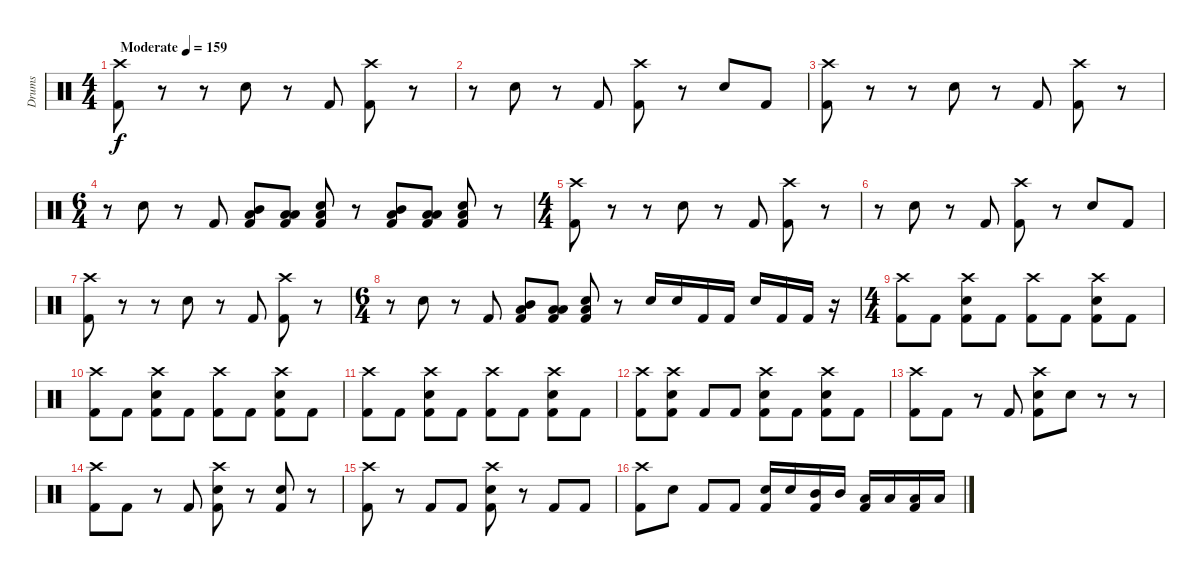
\track ("Drums" "Drums") {instrument percussion}
\staff {score}
\articulation defaults
\ts (4 4)
\tempo (159 "Moderate")
\clef neutral
\ks c
("Crash high (hit)" "Kick (hit) 2").8{dy f} r.8 r.8 "Electric Snare (hit)".8 r.8 "Kick (hit) 2".8 ("Crash high (hit)" "Kick (hit) 2").8 r.8 |
r.8 "Electric Snare (hit)".8 r.8 "Kick (hit) 2".8 ("Crash high (hit)" "Kick (hit) 2").8 r.8 "Electric Snare (hit)".8 "Kick (hit) 2".8 |
("Crash high (hit)" "Kick (hit) 2").8 r.8 r.8 "Electric Snare (hit)".8 r.8 "Kick (hit) 2".8 ("Crash high (hit)" "Kick (hit) 2").8 r.8 |
\ts (6 4)
r.8 "Electric Snare (hit)".8 r.8 "Kick (hit) 2".8 ("Mid Tom (hit)" "Low Floor Tom (hit)" "Kick (hit) 2").8 ("Low Tom (hit)" "Low Floor Tom (hit)" "Kick (hit) 2").8 ("Low Floor Tom (hit)" "Electric Snare (hit)" "Kick (hit) 2").8 r.8 ("Mid Tom (hit)" "Low Floor Tom (hit)" "Kick (hit) 2").8 ("Low Tom (hit)" "Low Floor Tom (hit)" "Kick (hit) 2").8 ("Low Floor Tom (hit)" "Electric Snare (hit)" "Kick (hit) 2").8 r.8 |
\ts (4 4)
("Crash high (hit)" "Kick (hit) 2").8 r.8 r.8 "Electric Snare (hit)".8 r.8 "Kick (hit) 2".8 ("Crash high (hit)" "Kick (hit) 2").8 r.8 |
r.8 "Electric Snare (hit)".8 r.8 "Kick (hit) 2".8 ("Crash high (hit)" "Kick (hit) 2").8 r.8 "Electric Snare (hit)".8 "Kick (hit) 2".8 |
("Crash high (hit)" "Kick (hit) 2").8 r.8 r.8 "Electric Snare (hit)".8 r.8 "Kick (hit) 2".8 ("Crash high (hit)" "Kick (hit) 2").8 r.8 |
\ts (6 4)
r.8 "Electric Snare (hit)".8 r.8 "Kick (hit) 2".8 ("Mid Tom (hit)" "Low Floor Tom (hit)" "Kick (hit) 2").8 ("Low Tom (hit)" "Low Floor Tom (hit)" "Kick (hit) 2").8 ("Low Floor Tom (hit)" "Electric Snare (hit)" "Kick (hit) 2").8 r.8 "Electric Snare (hit)".16 "Electric Snare (hit)".16 "Kick (hit) 2".16 "Kick (hit) 2".16 "Electric Snare (hit)".16 "Kick (hit) 2".16 "Kick (hit) 2".16 r.16 |
\ts (4 4)
("Crash high (hit)" "Kick (hit) 2").8 "Kick (hit) 2".8 ("Crash high (hit)" "Electric Snare (hit)" "Kick (hit) 2").8 "Kick (hit) 2".8 ("Crash high (hit)" "Kick (hit) 2").8 "Kick (hit) 2".8 ("Crash high (hit)" "Electric Snare (hit)" "Kick (hit) 2").8 "Kick (hit) 2".8 |
("Crash high (hit)" "Kick (hit) 2").8 "Kick (hit) 2".8 ("Crash high (hit)" "Electric Snare (hit)" "Kick (hit) 2").8 "Kick (hit) 2".8 ("Crash high (hit)" "Kick (hit) 2").8 "Kick (hit) 2".8 ("Crash high (hit)" "Electric Snare (hit)" "Kick (hit) 2").8 "Kick (hit) 2".8 |
("Crash high (hit)" "Kick (hit) 2").8 "Kick (hit) 2".8 ("Crash high (hit)" "Electric Snare (hit)" "Kick (hit) 2").8 "Kick (hit) 2".8 ("Crash high (hit)" "Kick (hit) 2").8 "Kick (hit) 2".8 ("Crash high (hit)" "Electric Snare (hit)" "Kick (hit) 2").8 "Kick (hit) 2".8 |
("Crash high (hit)" "Kick (hit) 2").8 ("Crash high (hit)" "Electric Snare (hit)" "Kick (hit) 2").8 "Kick (hit) 2".8 "Kick (hit) 2".8 ("Crash high (hit)" "Electric Snare (hit)" "Kick (hit) 2").8 "Kick (hit) 2".8 ("Crash high (hit)" "Electric Snare (hit)" "Kick (hit) 2").8 "Kick (hit) 2".8 |
("Crash high (hit)" "Kick (hit) 2").8 "Kick (hit) 2".8 r.8 "Kick (hit) 2".8 ("Crash high (hit)" "Electric Snare (hit)" "Kick (hit) 2").8 "Electric Snare (hit)".8 r.8 r.8 |
("Crash high (hit)" "Kick (hit) 2").8 "Kick (hit) 2".8 r.8 "Kick (hit) 2".8 ("Crash high (hit)" "Electric Snare (hit)" "Kick (hit) 2").8 r.8 ("Electric Snare (hit)" "Kick (hit) 2").8 r.8 |
("Crash high (hit)" "Kick (hit) 2").8 r.8 "Kick (hit) 2".8 "Kick (hit) 2".8 ("Crash high (hit)" "Electric Snare (hit)" "Kick (hit) 2").8 r.8 "Kick (hit) 2".8 "Kick (hit) 2".8 |
("Crash high (hit)" "Kick (hit) 2").8 "Electric Snare (hit)".8 "Kick (hit) 2".8 "Kick (hit) 2".8 ("Electric Snare (hit)" "Kick (hit) 2").16 "Electric Snare (hit)".16 ("Mid Tom (hit)" "Kick (hit) 2").16 "Mid Tom (hit)".16 ("Low Tom (hit)" "Kick (hit) 2").16 "Low Tom (hit)".16 ("Low Floor Tom (hit)" "Kick (hit) 2").16 "Low Floor Tom (hit)".16
